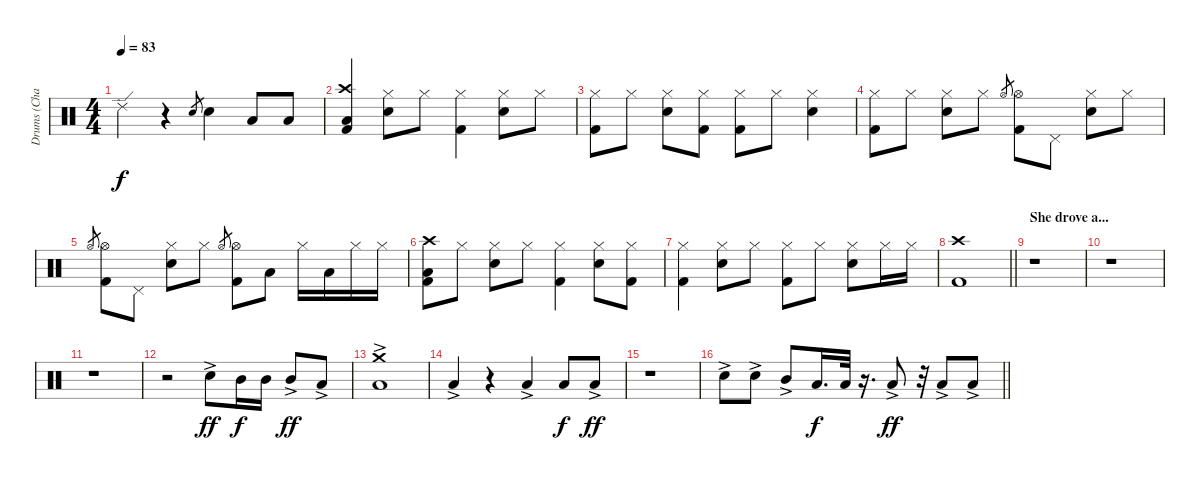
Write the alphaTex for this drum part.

\track ("Drums (Charlie)" "Drums (Cha") {instrument percussion}
\staff {score}
\articulation defaults
\ts (4 4)
\tempo 83
\clef neutral
\ks c "Ride (edge) 2".4{dy f}
r.4 "Snare (hit) 2".8{gr} "Snare (hit) 2".4 "Low Floor Tom (hit)".8 "Low Tom (hit)".8 |
("Crash high (hit)" "Low Tom (hit)" "Kick (hit) 2").4 ("Hi-Hat (closed)" "Snare (hit) 2").8 "Hi-Hat (closed)".8 ("Hi-Hat (closed)" "Kick (hit) 2").4 ("Hi-Hat (closed)" "Snare (hit) 2").8 "Hi-Hat (closed)".8 |
("Hi-Hat (closed)" "Kick (hit) 2").8 "Hi-Hat (closed)".8 ("Hi-Hat (closed)" "Snare (hit) 2").8 ("Hi-Hat (closed)" "Kick (hit) 2").8 ("Hi-Hat (closed)" "Kick (hit) 2").8 "Hi-Hat (closed)".8 ("Hi-Hat (closed)" "Snare (hit) 2").4 |
("Hi-Hat (closed)" "Kick (hit) 2").8 "Hi-Hat (closed)".8 ("Hi-Hat (closed)" "Snare (hit) 2").8 "Hi-Hat (closed)".8 "Hi-Hat (open)".8{gr} ("Hi-Hat (open)" "Kick (hit) 2").8 "Pedal Hi-Hat (hit)".8 ("Hi-Hat (closed)" "Snare (hit) 2").8 "Hi-Hat (closed)".8 |
"Hi-Hat (open)".8{gr} ("Hi-Hat (open)" "Kick (hit) 2").8 "Pedal Hi-Hat (hit)".8 ("Hi-Hat (closed)" "Snare (hit) 2").8 "Hi-Hat (closed)".8 "Hi-Hat (open)".8{gr} ("Hi-Hat (open)" "Kick (hit) 2").8 "Low Tom (hit)".8 "Hi-Hat (closed)".16 "Low Floor Tom (hit)".16 "Hi-Hat (closed)".16 "Hi-Hat (closed)".16 |
("Crash high (hit)" "Low Tom (hit)" "Kick (hit) 2").8 "Hi-Hat (closed)".8 ("Hi-Hat (closed)" "Snare (hit) 2").8 "Hi-Hat (closed)".8 ("Hi-Hat (closed)" "Kick (hit) 2").4 ("Hi-Hat (closed)" "Snare (hit) 2").8 ("Hi-Hat (closed)" "Kick (hit) 2").8 |
("Hi-Hat (closed)" "Kick (hit) 2").4 ("Hi-Hat (closed)" "Snare (hit) 2").8 "Hi-Hat (closed)".8 ("Hi-Hat (closed)" "Kick (hit) 2").8 "Hi-Hat (closed)".8 ("Hi-Hat (closed)" "Snare (hit) 2").8 "Hi-Hat (closed)".16 "Hi-Hat (closed)".16 |
\barLineRight lightlight
("Crash high (hit)" "Kick (hit) 2").1 |
\section ("" "She drove a...")
r.1 |
r.1 |
r.1 |
r.2 "Snare (hit) 2"{ac}.8{dy ff} "Mid Tom (hit)".16{dy f} "Mid Tom (hit)".16 "Mid Tom (hit)"{ac}.8{dy ff} "Low Tom (hit)"{ac}.8 |
("Crash medium (hit)"{ac} "Low Floor Tom (hit)"{ac}).1 |
"Low Floor Tom (hit)"{ac}.4 r.4 "Low Tom (hit)"{ac}.4 "Low Floor Tom (hit)".8{dy f} "Low Tom (hit)"{ac}.8{dy ff} |
r.1 |
\barLineRight lightlight "Snare (hit) 2"{ac}.8 "Snare (hit) 2"{ac}.8 "Mid Tom (hit)"{ac}.8 "Low Tom (hit)".16{d dy f} "Low Floor Tom (hit)".32
r.16{d} "Low Tom (hit)"{ac}.8{dy ff} r.32 "Low Tom (hit)"{ac}.8 "Low Tom (hit)"{ac}.8
